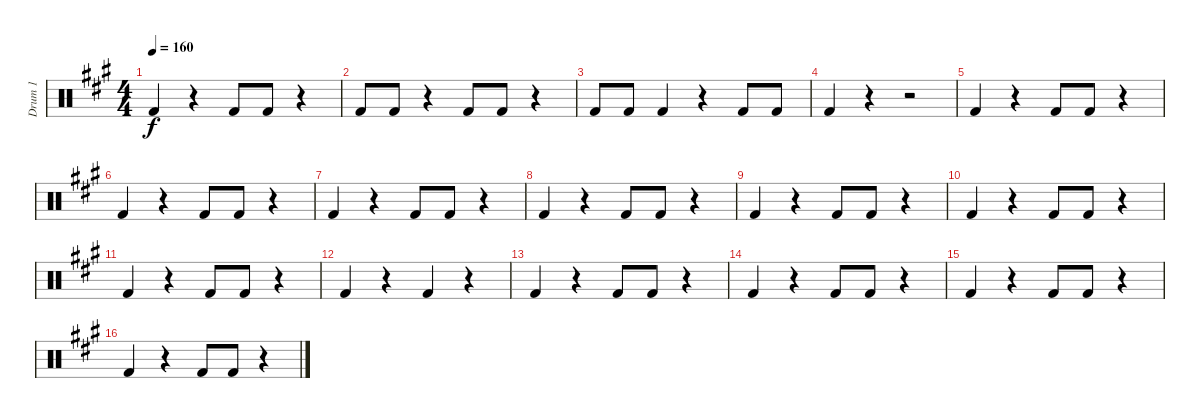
\track ("Drum 1" "Drum 1") {instrument percussion}
\staff {score}
\articulation defaults
\ts (4 4)
\tempo 160
\clef neutral
\ks a "Kick (hit) 2".4{dy f}
r.4 "Kick (hit) 2".8 "Kick (hit) 2".8 r.4 |
"Kick (hit) 2".8 "Kick (hit) 2".8 r.4 "Kick (hit) 2".8 "Kick (hit) 2".8 r.4 |
"Kick (hit) 2".8 "Kick (hit) 2".8 "Kick (hit) 2".4 r.4 "Kick (hit) 2".8 "Kick (hit) 2".8 |
"Kick (hit) 2".4 r.4 r.2 |
"Kick (hit) 2".4 r.4 "Kick (hit) 2".8 "Kick (hit) 2".8 r.4 |
"Kick (hit) 2".4 r.4 "Kick (hit) 2".8 "Kick (hit) 2".8 r.4 |
"Kick (hit) 2".4 r.4 "Kick (hit) 2".8 "Kick (hit) 2".8 r.4 |
"Kick (hit) 2".4 r.4 "Kick (hit) 2".8 "Kick (hit) 2".8 r.4 |
"Kick (hit) 2".4 r.4 "Kick (hit) 2".8 "Kick (hit) 2".8 r.4 |
"Kick (hit) 2".4 r.4 "Kick (hit) 2".8 "Kick (hit) 2".8 r.4 |
"Kick (hit) 2".4 r.4 "Kick (hit) 2".8 "Kick (hit) 2".8 r.4 |
"Kick (hit) 2".4 r.4 "Kick (hit) 2".4 r.4 |
"Kick (hit) 2".4 r.4 "Kick (hit) 2".8 "Kick (hit) 2".8 r.4 |
"Kick (hit) 2".4 r.4 "Kick (hit) 2".8 "Kick (hit) 2".8 r.4 |
"Kick (hit) 2".4 r.4 "Kick (hit) 2".8 "Kick (hit) 2".8 r.4 |
"Kick (hit) 2".4 r.4 "Kick (hit) 2".8 "Kick (hit) 2".8 r.4
